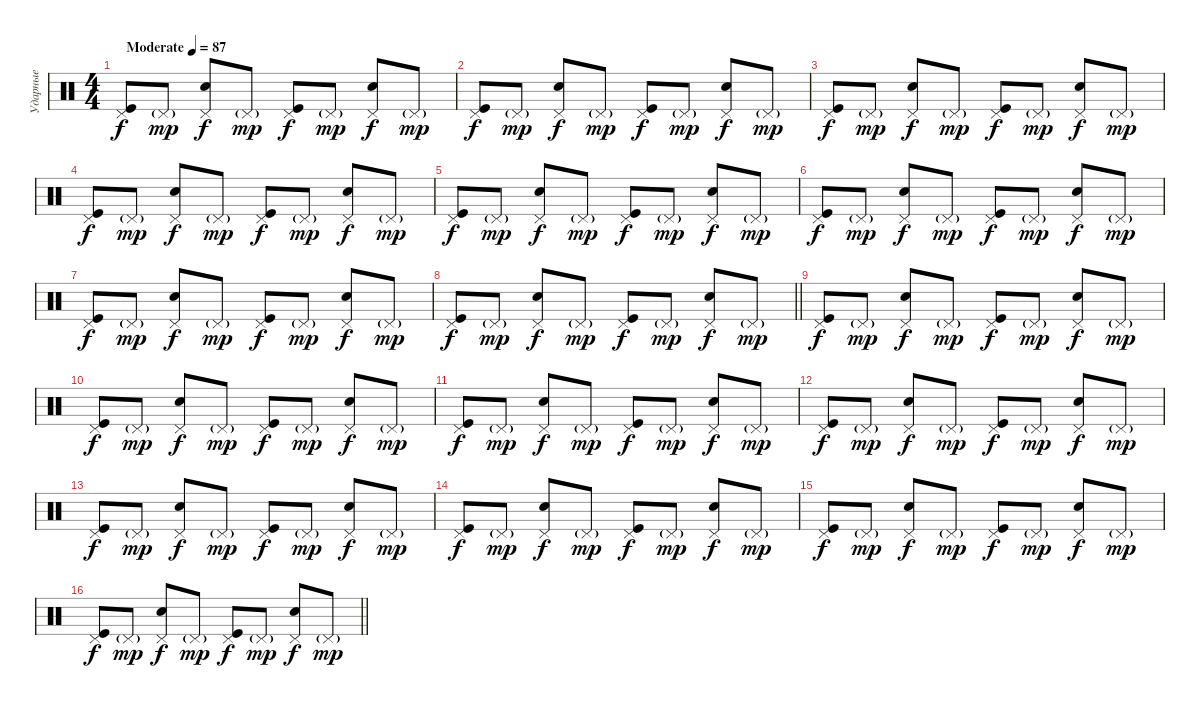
\track ("Ударные" "Ударные") {instrument percussion}
\staff {score}
\articulation defaults
\ts (4 4)
\tempo (87 "Moderate")
\clef neutral
\ks c
("Pedal Hi-Hat (hit)" "Kick (hit)").8{dy f} "Pedal Hi-Hat (hit)"{g}.8{dy mp} ("Pedal Hi-Hat (hit)" "Snare (hit) 2").8{dy f} "Pedal Hi-Hat (hit)"{g}.8{dy mp} ("Pedal Hi-Hat (hit)" "Kick (hit)").8{dy f} "Pedal Hi-Hat (hit)"{g}.8{dy mp} ("Pedal Hi-Hat (hit)" "Snare (hit) 2").8{dy f} "Pedal Hi-Hat (hit)"{g}.8{dy mp} |
("Pedal Hi-Hat (hit)" "Kick (hit)").8{dy f} "Pedal Hi-Hat (hit)"{g}.8{dy mp} ("Pedal Hi-Hat (hit)" "Snare (hit) 2").8{dy f} "Pedal Hi-Hat (hit)"{g}.8{dy mp} ("Pedal Hi-Hat (hit)" "Kick (hit)").8{dy f} "Pedal Hi-Hat (hit)"{g}.8{dy mp} ("Pedal Hi-Hat (hit)" "Snare (hit) 2").8{dy f} "Pedal Hi-Hat (hit)"{g}.8{dy mp} |
("Pedal Hi-Hat (hit)" "Kick (hit)").8{dy f} "Pedal Hi-Hat (hit)"{g}.8{dy mp} ("Pedal Hi-Hat (hit)" "Snare (hit) 2").8{dy f} "Pedal Hi-Hat (hit)"{g}.8{dy mp} ("Pedal Hi-Hat (hit)" "Kick (hit)").8{dy f} "Pedal Hi-Hat (hit)"{g}.8{dy mp} ("Pedal Hi-Hat (hit)" "Snare (hit) 2").8{dy f} "Pedal Hi-Hat (hit)"{g}.8{dy mp} |
("Pedal Hi-Hat (hit)" "Kick (hit)").8{dy f} "Pedal Hi-Hat (hit)"{g}.8{dy mp} ("Pedal Hi-Hat (hit)" "Snare (hit) 2").8{dy f} "Pedal Hi-Hat (hit)"{g}.8{dy mp} ("Pedal Hi-Hat (hit)" "Kick (hit)").8{dy f} "Pedal Hi-Hat (hit)"{g}.8{dy mp} ("Pedal Hi-Hat (hit)" "Snare (hit) 2").8{dy f} "Pedal Hi-Hat (hit)"{g}.8{dy mp} |
("Pedal Hi-Hat (hit)" "Kick (hit)").8{dy f} "Pedal Hi-Hat (hit)"{g}.8{dy mp} ("Pedal Hi-Hat (hit)" "Snare (hit) 2").8{dy f} "Pedal Hi-Hat (hit)"{g}.8{dy mp} ("Pedal Hi-Hat (hit)" "Kick (hit)").8{dy f} "Pedal Hi-Hat (hit)"{g}.8{dy mp} ("Pedal Hi-Hat (hit)" "Snare (hit) 2").8{dy f} "Pedal Hi-Hat (hit)"{g}.8{dy mp} |
("Pedal Hi-Hat (hit)" "Kick (hit)").8{dy f} "Pedal Hi-Hat (hit)"{g}.8{dy mp} ("Pedal Hi-Hat (hit)" "Snare (hit) 2").8{dy f} "Pedal Hi-Hat (hit)"{g}.8{dy mp} ("Pedal Hi-Hat (hit)" "Kick (hit)").8{dy f} "Pedal Hi-Hat (hit)"{g}.8{dy mp} ("Pedal Hi-Hat (hit)" "Snare (hit) 2").8{dy f} "Pedal Hi-Hat (hit)"{g}.8{dy mp} |
("Pedal Hi-Hat (hit)" "Kick (hit)").8{dy f} "Pedal Hi-Hat (hit)"{g}.8{dy mp} ("Pedal Hi-Hat (hit)" "Snare (hit) 2").8{dy f} "Pedal Hi-Hat (hit)"{g}.8{dy mp} ("Pedal Hi-Hat (hit)" "Kick (hit)").8{dy f} "Pedal Hi-Hat (hit)"{g}.8{dy mp} ("Pedal Hi-Hat (hit)" "Snare (hit) 2").8{dy f} "Pedal Hi-Hat (hit)"{g}.8{dy mp} |
\barLineRight lightlight
("Pedal Hi-Hat (hit)" "Kick (hit)").8{dy f} "Pedal Hi-Hat (hit)"{g}.8{dy mp} ("Pedal Hi-Hat (hit)" "Snare (hit) 2").8{dy f} "Pedal Hi-Hat (hit)"{g}.8{dy mp} ("Pedal Hi-Hat (hit)" "Kick (hit)").8{dy f} "Pedal Hi-Hat (hit)"{g}.8{dy mp} ("Pedal Hi-Hat (hit)" "Snare (hit) 2").8{dy f} "Pedal Hi-Hat (hit)"{g}.8{dy mp} |
("Pedal Hi-Hat (hit)" "Kick (hit)").8{dy f} "Pedal Hi-Hat (hit)"{g}.8{dy mp} ("Pedal Hi-Hat (hit)" "Snare (hit) 2").8{dy f} "Pedal Hi-Hat (hit)"{g}.8{dy mp} ("Pedal Hi-Hat (hit)" "Kick (hit)").8{dy f} "Pedal Hi-Hat (hit)"{g}.8{dy mp} ("Pedal Hi-Hat (hit)" "Snare (hit) 2").8{dy f} "Pedal Hi-Hat (hit)"{g}.8{dy mp} |
("Pedal Hi-Hat (hit)" "Kick (hit)").8{dy f} "Pedal Hi-Hat (hit)"{g}.8{dy mp} ("Pedal Hi-Hat (hit)" "Snare (hit) 2").8{dy f} "Pedal Hi-Hat (hit)"{g}.8{dy mp} ("Pedal Hi-Hat (hit)" "Kick (hit)").8{dy f} "Pedal Hi-Hat (hit)"{g}.8{dy mp} ("Pedal Hi-Hat (hit)" "Snare (hit) 2").8{dy f} "Pedal Hi-Hat (hit)"{g}.8{dy mp} |
("Pedal Hi-Hat (hit)" "Kick (hit)").8{dy f} "Pedal Hi-Hat (hit)"{g}.8{dy mp} ("Pedal Hi-Hat (hit)" "Snare (hit) 2").8{dy f} "Pedal Hi-Hat (hit)"{g}.8{dy mp} ("Pedal Hi-Hat (hit)" "Kick (hit)").8{dy f} "Pedal Hi-Hat (hit)"{g}.8{dy mp} ("Pedal Hi-Hat (hit)" "Snare (hit) 2").8{dy f} "Pedal Hi-Hat (hit)"{g}.8{dy mp} |
("Pedal Hi-Hat (hit)" "Kick (hit)").8{dy f} "Pedal Hi-Hat (hit)"{g}.8{dy mp} ("Pedal Hi-Hat (hit)" "Snare (hit) 2").8{dy f} "Pedal Hi-Hat (hit)"{g}.8{dy mp} ("Pedal Hi-Hat (hit)" "Kick (hit)").8{dy f} "Pedal Hi-Hat (hit)"{g}.8{dy mp} ("Pedal Hi-Hat (hit)" "Snare (hit) 2").8{dy f} "Pedal Hi-Hat (hit)"{g}.8{dy mp} |
("Pedal Hi-Hat (hit)" "Kick (hit)").8{dy f} "Pedal Hi-Hat (hit)"{g}.8{dy mp} ("Pedal Hi-Hat (hit)" "Snare (hit) 2").8{dy f} "Pedal Hi-Hat (hit)"{g}.8{dy mp} ("Pedal Hi-Hat (hit)" "Kick (hit)").8{dy f} "Pedal Hi-Hat (hit)"{g}.8{dy mp} ("Pedal Hi-Hat (hit)" "Snare (hit) 2").8{dy f} "Pedal Hi-Hat (hit)"{g}.8{dy mp} |
("Pedal Hi-Hat (hit)" "Kick (hit)").8{dy f} "Pedal Hi-Hat (hit)"{g}.8{dy mp} ("Pedal Hi-Hat (hit)" "Snare (hit) 2").8{dy f} "Pedal Hi-Hat (hit)"{g}.8{dy mp} ("Pedal Hi-Hat (hit)" "Kick (hit)").8{dy f} "Pedal Hi-Hat (hit)"{g}.8{dy mp} ("Pedal Hi-Hat (hit)" "Snare (hit) 2").8{dy f} "Pedal Hi-Hat (hit)"{g}.8{dy mp} |
("Pedal Hi-Hat (hit)" "Kick (hit)").8{dy f} "Pedal Hi-Hat (hit)"{g}.8{dy mp} ("Pedal Hi-Hat (hit)" "Snare (hit) 2").8{dy f} "Pedal Hi-Hat (hit)"{g}.8{dy mp} ("Pedal Hi-Hat (hit)" "Kick (hit)").8{dy f} "Pedal Hi-Hat (hit)"{g}.8{dy mp} ("Pedal Hi-Hat (hit)" "Snare (hit) 2").8{dy f} "Pedal Hi-Hat (hit)"{g}.8{dy mp} |
\barLineRight lightlight
("Pedal Hi-Hat (hit)" "Kick (hit)").8{dy f} "Pedal Hi-Hat (hit)"{g}.8{dy mp} ("Pedal Hi-Hat (hit)" "Snare (hit) 2").8{dy f} "Pedal Hi-Hat (hit)"{g}.8{dy mp} ("Pedal Hi-Hat (hit)" "Kick (hit)").8{dy f} "Pedal Hi-Hat (hit)"{g}.8{dy mp} ("Pedal Hi-Hat (hit)" "Snare (hit) 2").8{dy f} "Pedal Hi-Hat (hit)"{g}.8{dy mp}
